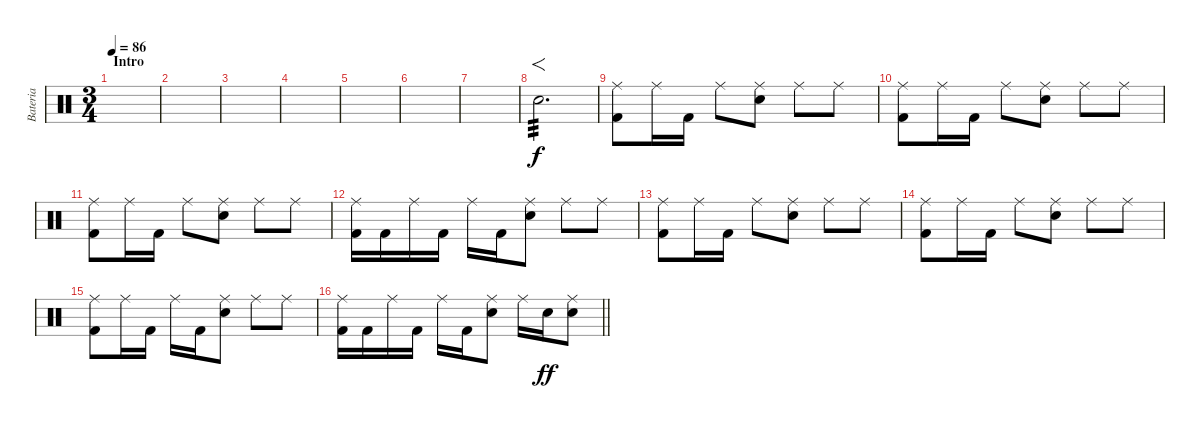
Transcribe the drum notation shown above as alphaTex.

\track ("Bateria" "Bateria") {instrument percussion}
\staff {score}
\articulation defaults
\ts (3 4)
\section ("" "Intro")
\tempo 86
\clef neutral
\ks c
|
|
|
|
|
|
|
"Snare (hit) 2".2{f d tp 3} |
("Ride (middle)" "Kick (hit) 2").8 "Ride (middle)".16 "Kick (hit) 2".16 "Ride (middle)".8 ("Ride (middle)" "Snare (hit) 2").8 "Ride (middle)".8 "Ride (middle)".8 |
("Ride (middle)" "Kick (hit) 2").8 "Ride (middle)".16 "Kick (hit) 2".16 "Ride (middle)".8 ("Ride (middle)" "Snare (hit) 2").8 "Ride (middle)".8 "Ride (middle)".8 |
("Ride (middle)" "Kick (hit) 2").8 "Ride (middle)".16 "Kick (hit) 2".16 "Ride (middle)".8 ("Ride (middle)" "Snare (hit) 2").8 "Ride (middle)".8 "Ride (middle)".8 |
("Ride (middle)" "Kick (hit) 2").16 "Kick (hit) 2".16 "Ride (middle)".16 "Kick (hit) 2".16 "Ride (middle)".16 "Kick (hit) 2".16 ("Ride (middle)" "Snare (hit) 2").8 "Ride (middle)".8 "Ride (middle)".8 |
("Ride (middle)" "Kick (hit) 2").8 "Ride (middle)".16 "Kick (hit) 2".16 "Ride (middle)".8 ("Ride (middle)" "Snare (hit) 2").8 "Ride (middle)".8 "Ride (middle)".8 |
("Ride (middle)" "Kick (hit) 2").8 "Ride (middle)".16 "Kick (hit) 2".16 "Ride (middle)".8 ("Ride (middle)" "Snare (hit) 2").8 "Ride (middle)".8 "Ride (middle)".8 |
("Ride (middle)" "Kick (hit) 2").8 "Ride (middle)".16 "Kick (hit) 2".16 "Ride (middle)".16 "Kick (hit) 2".16 ("Ride (middle)" "Snare (hit) 2").8 "Ride (middle)".8 "Ride (middle)".8 |
\barLineRight lightlight
("Ride (middle)" "Kick (hit) 2").16 "Kick (hit) 2".16 "Ride (middle)".16 "Kick (hit) 2".16 "Ride (middle)".16 "Kick (hit) 2".16 ("Ride (middle)" "Snare (hit) 2").8 "Ride (middle)".16 "Snare (hit) 2".16{dy ff} ("Ride (middle)" "Snare (hit) 2").8
